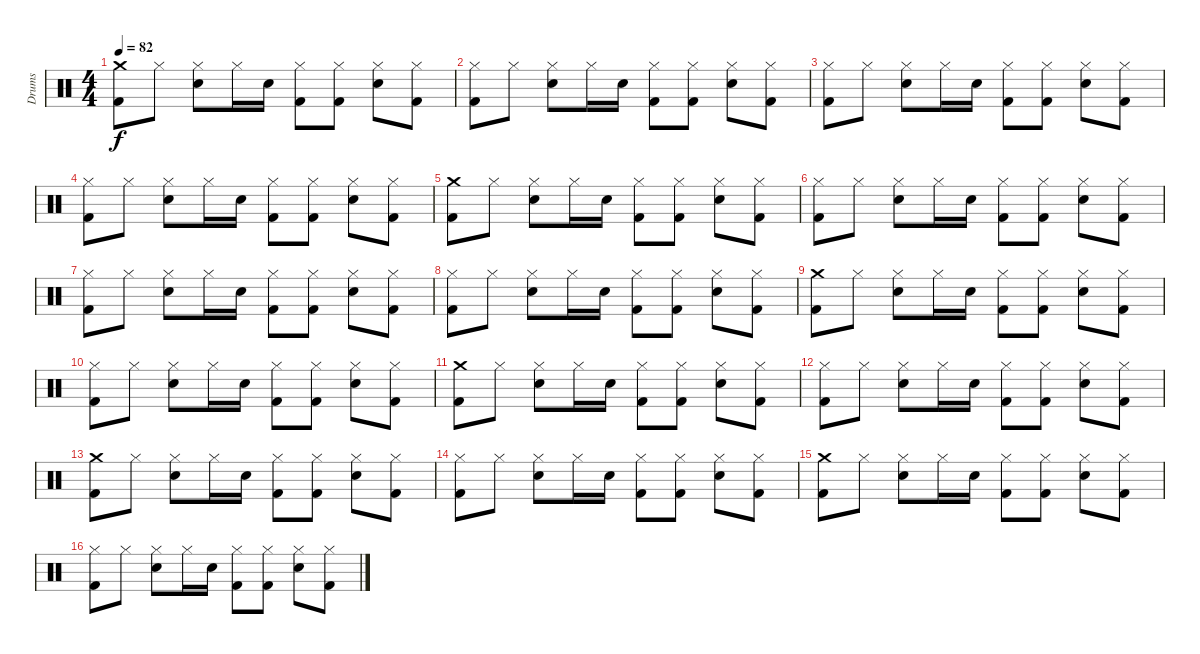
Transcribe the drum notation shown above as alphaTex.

\track ("Drums" "Drums") {instrument percussion}
\staff {score}
\articulation defaults
\ts (4 4)
\tempo 82
\clef neutral
\ks c
("Crash medium (hit)" "Kick (hit) 2").8{dy f} "Hi-Hat (closed)".8 ("Hi-Hat (closed)" "Electric Snare (hit)").8 "Hi-Hat (closed)".16 "Electric Snare (hit)".16 ("Hi-Hat (closed)" "Kick (hit) 2").8 ("Hi-Hat (closed)" "Kick (hit) 2").8 ("Hi-Hat (closed)" "Electric Snare (hit)").8 ("Hi-Hat (closed)" "Kick (hit) 2").8 |
("Hi-Hat (closed)" "Kick (hit) 2").8 "Hi-Hat (closed)".8 ("Hi-Hat (closed)" "Electric Snare (hit)").8 "Hi-Hat (closed)".16 "Electric Snare (hit)".16 ("Hi-Hat (closed)" "Kick (hit) 2").8 ("Hi-Hat (closed)" "Kick (hit) 2").8 ("Hi-Hat (closed)" "Electric Snare (hit)").8 ("Hi-Hat (closed)" "Kick (hit) 2").8 |
("Hi-Hat (closed)" "Kick (hit) 2").8 "Hi-Hat (closed)".8 ("Hi-Hat (closed)" "Electric Snare (hit)").8 "Hi-Hat (closed)".16 "Electric Snare (hit)".16 ("Hi-Hat (closed)" "Kick (hit) 2").8 ("Hi-Hat (closed)" "Kick (hit) 2").8 ("Hi-Hat (closed)" "Electric Snare (hit)").8 ("Hi-Hat (closed)" "Kick (hit) 2").8 |
("Hi-Hat (closed)" "Kick (hit) 2").8 "Hi-Hat (closed)".8 ("Hi-Hat (closed)" "Electric Snare (hit)").8 "Hi-Hat (closed)".16 "Electric Snare (hit)".16 ("Hi-Hat (closed)" "Kick (hit) 2").8 ("Hi-Hat (closed)" "Kick (hit) 2").8 ("Hi-Hat (closed)" "Electric Snare (hit)").8 ("Hi-Hat (closed)" "Kick (hit) 2").8 |
("Crash medium (hit)" "Kick (hit) 2").8 "Hi-Hat (closed)".8 ("Hi-Hat (closed)" "Electric Snare (hit)").8 "Hi-Hat (closed)".16 "Electric Snare (hit)".16 ("Hi-Hat (closed)" "Kick (hit) 2").8 ("Hi-Hat (closed)" "Kick (hit) 2").8 ("Hi-Hat (closed)" "Electric Snare (hit)").8 ("Hi-Hat (closed)" "Kick (hit) 2").8 |
("Hi-Hat (closed)" "Kick (hit) 2").8 "Hi-Hat (closed)".8 ("Hi-Hat (closed)" "Electric Snare (hit)").8 "Hi-Hat (closed)".16 "Electric Snare (hit)".16 ("Hi-Hat (closed)" "Kick (hit) 2").8 ("Hi-Hat (closed)" "Kick (hit) 2").8 ("Hi-Hat (closed)" "Electric Snare (hit)").8 ("Hi-Hat (closed)" "Kick (hit) 2").8 |
("Hi-Hat (closed)" "Kick (hit) 2").8 "Hi-Hat (closed)".8 ("Hi-Hat (closed)" "Electric Snare (hit)").8 "Hi-Hat (closed)".16 "Electric Snare (hit)".16 ("Hi-Hat (closed)" "Kick (hit) 2").8 ("Hi-Hat (closed)" "Kick (hit) 2").8 ("Hi-Hat (closed)" "Electric Snare (hit)").8 ("Hi-Hat (closed)" "Kick (hit) 2").8 |
("Hi-Hat (closed)" "Kick (hit) 2").8 "Hi-Hat (closed)".8 ("Hi-Hat (closed)" "Electric Snare (hit)").8 "Hi-Hat (closed)".16 "Electric Snare (hit)".16 ("Hi-Hat (closed)" "Kick (hit) 2").8 ("Hi-Hat (closed)" "Kick (hit) 2").8 ("Hi-Hat (closed)" "Electric Snare (hit)").8 ("Hi-Hat (closed)" "Kick (hit) 2").8 |
("Crash medium (hit)" "Kick (hit) 2").8 "Hi-Hat (closed)".8 ("Hi-Hat (closed)" "Electric Snare (hit)").8 "Hi-Hat (closed)".16 "Electric Snare (hit)".16 ("Hi-Hat (closed)" "Kick (hit) 2").8 ("Hi-Hat (closed)" "Kick (hit) 2").8 ("Hi-Hat (closed)" "Electric Snare (hit)").8 ("Hi-Hat (closed)" "Kick (hit) 2").8 |
("Hi-Hat (closed)" "Kick (hit) 2").8 "Hi-Hat (closed)".8 ("Hi-Hat (closed)" "Electric Snare (hit)").8 "Hi-Hat (closed)".16 "Electric Snare (hit)".16 ("Hi-Hat (closed)" "Kick (hit) 2").8 ("Hi-Hat (closed)" "Kick (hit) 2").8 ("Hi-Hat (closed)" "Electric Snare (hit)").8 ("Hi-Hat (closed)" "Kick (hit) 2").8 |
("Crash medium (hit)" "Kick (hit) 2").8 "Hi-Hat (closed)".8 ("Hi-Hat (closed)" "Electric Snare (hit)").8 "Hi-Hat (closed)".16 "Electric Snare (hit)".16 ("Hi-Hat (closed)" "Kick (hit) 2").8 ("Hi-Hat (closed)" "Kick (hit) 2").8 ("Hi-Hat (closed)" "Electric Snare (hit)").8 ("Hi-Hat (closed)" "Kick (hit) 2").8 |
("Hi-Hat (closed)" "Kick (hit) 2").8 "Hi-Hat (closed)".8 ("Hi-Hat (closed)" "Electric Snare (hit)").8 "Hi-Hat (closed)".16 "Electric Snare (hit)".16 ("Hi-Hat (closed)" "Kick (hit) 2").8 ("Hi-Hat (closed)" "Kick (hit) 2").8 ("Hi-Hat (closed)" "Electric Snare (hit)").8 ("Hi-Hat (closed)" "Kick (hit) 2").8 |
("Crash medium (hit)" "Kick (hit) 2").8 "Hi-Hat (closed)".8 ("Hi-Hat (closed)" "Electric Snare (hit)").8 "Hi-Hat (closed)".16 "Electric Snare (hit)".16 ("Hi-Hat (closed)" "Kick (hit) 2").8 ("Hi-Hat (closed)" "Kick (hit) 2").8 ("Hi-Hat (closed)" "Electric Snare (hit)").8 ("Hi-Hat (closed)" "Kick (hit) 2").8 |
("Hi-Hat (closed)" "Kick (hit) 2").8 "Hi-Hat (closed)".8 ("Hi-Hat (closed)" "Electric Snare (hit)").8 "Hi-Hat (closed)".16 "Electric Snare (hit)".16 ("Hi-Hat (closed)" "Kick (hit) 2").8 ("Hi-Hat (closed)" "Kick (hit) 2").8 ("Hi-Hat (closed)" "Electric Snare (hit)").8 ("Hi-Hat (closed)" "Kick (hit) 2").8 |
("Crash medium (hit)" "Kick (hit) 2").8 "Hi-Hat (closed)".8 ("Hi-Hat (closed)" "Electric Snare (hit)").8 "Hi-Hat (closed)".16 "Electric Snare (hit)".16 ("Hi-Hat (closed)" "Kick (hit) 2").8 ("Hi-Hat (closed)" "Kick (hit) 2").8 ("Hi-Hat (closed)" "Electric Snare (hit)").8 ("Hi-Hat (closed)" "Kick (hit) 2").8 |
("Hi-Hat (closed)" "Kick (hit) 2").8 "Hi-Hat (closed)".8 ("Hi-Hat (closed)" "Electric Snare (hit)").8 "Hi-Hat (closed)".16 "Electric Snare (hit)".16 ("Hi-Hat (closed)" "Kick (hit) 2").8 ("Hi-Hat (closed)" "Kick (hit) 2").8 ("Hi-Hat (closed)" "Electric Snare (hit)").8 ("Hi-Hat (closed)" "Kick (hit) 2").8
